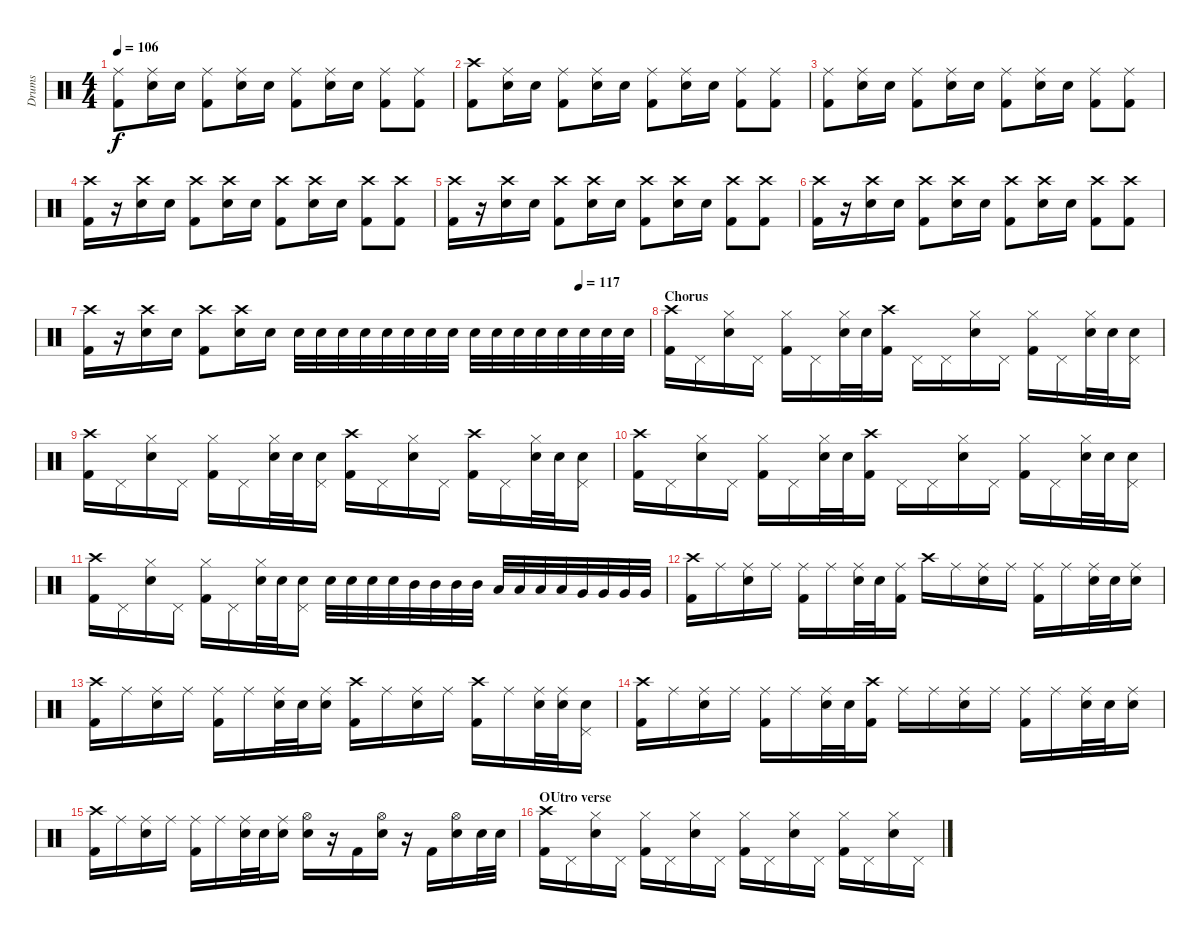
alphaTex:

\track ("Drums" "Drums") {instrument percussion}
\staff {score}
\articulation defaults
\ts (4 4)
\tempo 106
\clef neutral
\ks c
("Ride (middle)" "Kick (hit) 2").8{dy f} ("Ride (middle)" "Electric Snare (hit)").16 "Electric Snare (hit)".16 ("Ride (middle)" "Kick (hit) 2").8 ("Ride (middle)" "Electric Snare (hit)").16 "Electric Snare (hit)".16 ("Ride (middle)" "Kick (hit) 2").8 ("Ride (middle)" "Electric Snare (hit)").16 "Electric Snare (hit)".16 ("Ride (middle)" "Kick (hit) 2").8 ("Ride (middle)" "Kick (hit) 2").8 |
("Crash high (hit)" "Kick (hit) 2").8 ("Ride (middle)" "Electric Snare (hit)").16 "Electric Snare (hit)".16 ("Ride (middle)" "Kick (hit) 2").8 ("Ride (middle)" "Electric Snare (hit)").16 "Electric Snare (hit)".16 ("Ride (middle)" "Kick (hit) 2").8 ("Ride (middle)" "Electric Snare (hit)").16 "Electric Snare (hit)".16 ("Ride (middle)" "Kick (hit) 2").8 ("Ride (middle)" "Kick (hit) 2").8 |
("Ride (middle)" "Kick (hit) 2").8 ("Ride (middle)" "Electric Snare (hit)").16 "Electric Snare (hit)".16 ("Ride (middle)" "Kick (hit) 2").8 ("Ride (middle)" "Electric Snare (hit)").16 "Electric Snare (hit)".16 ("Ride (middle)" "Kick (hit) 2").8 ("Ride (middle)" "Electric Snare (hit)").16 "Electric Snare (hit)".16 ("Ride (middle)" "Kick (hit) 2").8 ("Ride (middle)" "Kick (hit) 2").8 |
("Crash high (hit)" "Kick (hit) 2").16 r.16 ("Crash high (hit)" "Electric Snare (hit)").16 "Electric Snare (hit)".16 ("Crash high (hit)" "Kick (hit) 2").8 ("Crash high (hit)" "Electric Snare (hit)").16 "Electric Snare (hit)".16 ("Crash high (hit)" "Kick (hit) 2").8 ("Crash high (hit)" "Electric Snare (hit)").16 "Electric Snare (hit)".16 ("Crash high (hit)" "Kick (hit) 2").8 ("Crash high (hit)" "Kick (hit) 2").8 |
("Crash high (hit)" "Kick (hit) 2").16 r.16 ("Crash high (hit)" "Electric Snare (hit)").16 "Electric Snare (hit)".16 ("Crash high (hit)" "Kick (hit) 2").8 ("Crash high (hit)" "Electric Snare (hit)").16 "Electric Snare (hit)".16 ("Crash high (hit)" "Kick (hit) 2").8 ("Crash high (hit)" "Electric Snare (hit)").16 "Electric Snare (hit)".16 ("Crash high (hit)" "Kick (hit) 2").8 ("Crash high (hit)" "Kick (hit) 2").8 |
("Crash high (hit)" "Kick (hit) 2").16 r.16 ("Crash high (hit)" "Electric Snare (hit)").16 "Electric Snare (hit)".16 ("Crash high (hit)" "Kick (hit) 2").8 ("Crash high (hit)" "Electric Snare (hit)").16 "Electric Snare (hit)".16 ("Crash high (hit)" "Kick (hit) 2").8 ("Crash high (hit)" "Electric Snare (hit)").16 "Electric Snare (hit)".16 ("Crash high (hit)" "Kick (hit) 2").8 ("Crash high (hit)" "Kick (hit) 2").8 |
\tempo (117 0.875)
("Crash high (hit)" "Kick (hit) 2").16 r.16 ("Crash high (hit)" "Electric Snare (hit)").16 "Electric Snare (hit)".16 ("Crash high (hit)" "Kick (hit) 2").8 ("Crash high (hit)" "Electric Snare (hit)").16 "Electric Snare (hit)".16 "Electric Snare (hit)".32 "Electric Snare (hit)".32 "Electric Snare (hit)".32 "Electric Snare (hit)".32 "Electric Snare (hit)".32 "Electric Snare (hit)".32 "Electric Snare (hit)".32 "Electric Snare (hit)".32 "Electric Snare (hit)".32 "Electric Snare (hit)".32 "Electric Snare (hit)".32 "Electric Snare (hit)".32 "Electric Snare (hit)".32 "Electric Snare (hit)".32 "Electric Snare (hit)".32 "Electric Snare (hit)".32 |
\section ("" "Chorus")
("Crash high (hit)" "Kick (hit) 2").16 "Pedal Hi-Hat (hit)".16 ("Hi-Hat (closed)" "Electric Snare (hit)").16 "Pedal Hi-Hat (hit)".16 ("Hi-Hat (closed)" "Kick (hit) 2").16 "Pedal Hi-Hat (hit)".16 ("Hi-Hat (closed)" "Electric Snare (hit)").32 "Electric Snare (hit)".32 ("Crash high (hit)" "Kick (hit) 2").16 "Pedal Hi-Hat (hit)".16 "Pedal Hi-Hat (hit)".16 ("Hi-Hat (closed)" "Electric Snare (hit)").16 "Pedal Hi-Hat (hit)".16 ("Hi-Hat (closed)" "Kick (hit) 2").16 "Pedal Hi-Hat (hit)".16 ("Hi-Hat (closed)" "Electric Snare (hit)").32 "Electric Snare (hit)".32 ("Pedal Hi-Hat (hit)" "Electric Snare (hit)").16 |
("Crash high (hit)" "Kick (hit) 2").16 "Pedal Hi-Hat (hit)".16 ("Hi-Hat (closed)" "Electric Snare (hit)").16 "Pedal Hi-Hat (hit)".16 ("Hi-Hat (closed)" "Kick (hit) 2").16 "Pedal Hi-Hat (hit)".16 ("Hi-Hat (closed)" "Electric Snare (hit)").32 "Electric Snare (hit)".32 ("Pedal Hi-Hat (hit)" "Electric Snare (hit)").16 ("Crash high (hit)" "Kick (hit) 2").16 "Pedal Hi-Hat (hit)".16 ("Hi-Hat (closed)" "Electric Snare (hit)").16 "Pedal Hi-Hat (hit)".16 ("Crash high (hit)" "Kick (hit) 2").16 "Pedal Hi-Hat (hit)".16 ("Hi-Hat (closed)" "Electric Snare (hit)").32 "Electric Snare (hit)".32 ("Pedal Hi-Hat (hit)" "Electric Snare (hit)").16 |
("Crash high (hit)" "Kick (hit) 2").16 "Pedal Hi-Hat (hit)".16 ("Hi-Hat (closed)" "Electric Snare (hit)").16 "Pedal Hi-Hat (hit)".16 ("Hi-Hat (closed)" "Kick (hit) 2").16 "Pedal Hi-Hat (hit)".16 ("Hi-Hat (closed)" "Electric Snare (hit)").32 "Electric Snare (hit)".32 ("Crash high (hit)" "Kick (hit) 2").16 "Pedal Hi-Hat (hit)".16 "Pedal Hi-Hat (hit)".16 ("Hi-Hat (closed)" "Electric Snare (hit)").16 "Pedal Hi-Hat (hit)".16 ("Hi-Hat (closed)" "Kick (hit) 2").16 "Pedal Hi-Hat (hit)".16 ("Hi-Hat (closed)" "Electric Snare (hit)").32 "Electric Snare (hit)".32 ("Pedal Hi-Hat (hit)" "Electric Snare (hit)").16 |
("Crash high (hit)" "Kick (hit) 2").16 "Pedal Hi-Hat (hit)".16 ("Hi-Hat (closed)" "Electric Snare (hit)").16 "Pedal Hi-Hat (hit)".16 ("Hi-Hat (closed)" "Kick (hit) 2").16 "Pedal Hi-Hat (hit)".16 ("Hi-Hat (closed)" "Electric Snare (hit)").32 "Electric Snare (hit)".32 ("Pedal Hi-Hat (hit)" "Electric Snare (hit)").16 "Electric Snare (hit)".32 "Electric Snare (hit)".32 "Electric Snare (hit)".32 "Electric Snare (hit)".32 "Mid Tom (hit)".32 "Mid Tom (hit)".32 "Mid Tom (hit)".32 "Mid Tom (hit)".32 "Low Tom (hit)".32 "Low Tom (hit)".32 "Low Tom (hit)".32 "Low Tom (hit)".32 "Very Low Tom (hit)".32 "Very Low Tom (hit)".32 "Very Low Tom (hit)".32 "Very Low Tom (hit)".32 |
("Crash high (hit)" "Kick (hit) 2").16 "Ride (middle)".16 ("Ride (middle)" "Electric Snare (hit)").16 "Ride (middle)".16 ("Ride (middle)" "Kick (hit) 2").16 "Ride (middle)".16 ("Ride (middle)" "Electric Snare (hit)").32 "Electric Snare (hit)".32 ("Ride (middle)" "Kick (hit) 2").16 "Crash high (hit)".16 "Ride (middle)".16 ("Ride (middle)" "Electric Snare (hit)").16 "Ride (middle)".16 ("Ride (middle)" "Kick (hit) 2").16 "Ride (middle)".16 ("Ride (middle)" "Electric Snare (hit)").32 "Electric Snare (hit)".32 ("Ride (middle)" "Electric Snare (hit)").16 |
("Crash high (hit)" "Kick (hit) 2").16 "Ride (middle)".16 ("Ride (middle)" "Electric Snare (hit)").16 "Ride (middle)".16 ("Ride (middle)" "Kick (hit) 2").16 "Ride (middle)".16 ("Ride (middle)" "Electric Snare (hit)").32 "Electric Snare (hit)".32 ("Ride (middle)" "Electric Snare (hit)").16 ("Crash high (hit)" "Kick (hit) 2").16 "Ride (middle)".16 ("Ride (middle)" "Electric Snare (hit)").16 "Ride (middle)".16 ("Crash high (hit)" "Kick (hit) 2").16 "Ride (middle)".16 ("Ride (middle)" "Electric Snare (hit)").32 ("Ride (middle)" "Electric Snare (hit)").32 ("Pedal Hi-Hat (hit)" "Electric Snare (hit)").16 |
("Crash high (hit)" "Kick (hit) 2").16 "Ride (middle)".16 ("Ride (middle)" "Electric Snare (hit)").16 "Ride (middle)".16 ("Ride (middle)" "Kick (hit) 2").16 "Ride (middle)".16 ("Ride (middle)" "Electric Snare (hit)").32 "Electric Snare (hit)".32 ("Crash high (hit)" "Kick (hit) 2").16 "Ride (middle)".16 "Ride (middle)".16 ("Ride (middle)" "Electric Snare (hit)").16 "Ride (middle)".16 ("Ride (middle)" "Kick (hit) 2").16 "Ride (middle)".16 ("Ride (middle)" "Electric Snare (hit)").32 "Electric Snare (hit)".32 ("Ride (middle)" "Electric Snare (hit)").16 |
("Crash high (hit)" "Kick (hit) 2").16 "Ride (middle)".16 ("Ride (middle)" "Electric Snare (hit)").16 "Ride (middle)".16 ("Ride (middle)" "Kick (hit) 2").16 "Ride (middle)".16 ("Ride (middle)" "Electric Snare (hit)").32 "Electric Snare (hit)".32 ("Ride (middle)" "Electric Snare (hit)").16 ("Hi-Hat (open)" "Electric Snare (hit)").16 r.16 "Kick (hit) 2".16 ("Hi-Hat (open)" "Electric Snare (hit)").16 r.16 "Kick (hit) 2".16 ("Hi-Hat (open)" "Electric Snare (hit)").16 "Electric Snare (hit)".32 "Electric Snare (hit)".32 |
\section ("" "OUtro verse")
("Crash high (hit)" "Kick (hit) 2").16 "Pedal Hi-Hat (hit)".16 ("Hi-Hat (closed)" "Electric Snare (hit)").16 "Pedal Hi-Hat (hit)".16 ("Hi-Hat (closed)" "Kick (hit) 2").16 "Pedal Hi-Hat (hit)".16 ("Hi-Hat (closed)" "Electric Snare (hit)").16 "Pedal Hi-Hat (hit)".16 ("Hi-Hat (closed)" "Kick (hit) 2").16 "Pedal Hi-Hat (hit)".16 ("Hi-Hat (closed)" "Electric Snare (hit)").16 "Pedal Hi-Hat (hit)".16 ("Hi-Hat (closed)" "Kick (hit) 2").16 "Pedal Hi-Hat (hit)".16 ("Hi-Hat (closed)" "Electric Snare (hit)").16 "Pedal Hi-Hat (hit)".16
